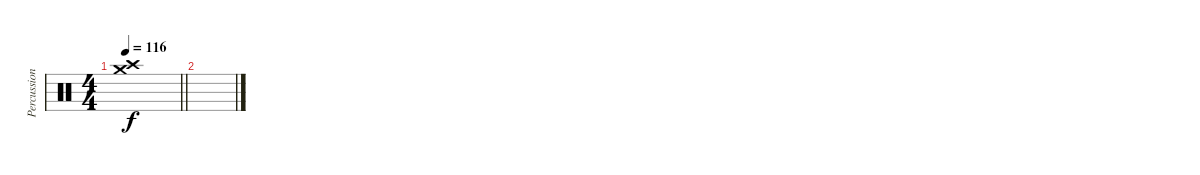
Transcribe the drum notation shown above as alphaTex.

\track ("Percussion" "Percussion") {instrument percussion}
\staff {score}
\articulation defaults
\ts (4 4)
\tempo 116
\clef neutral
\barLineRight lightlight
\ks c
("Crash medium (hit)" "Crash high (hit)").1{dy f} |
\section ("" "")
